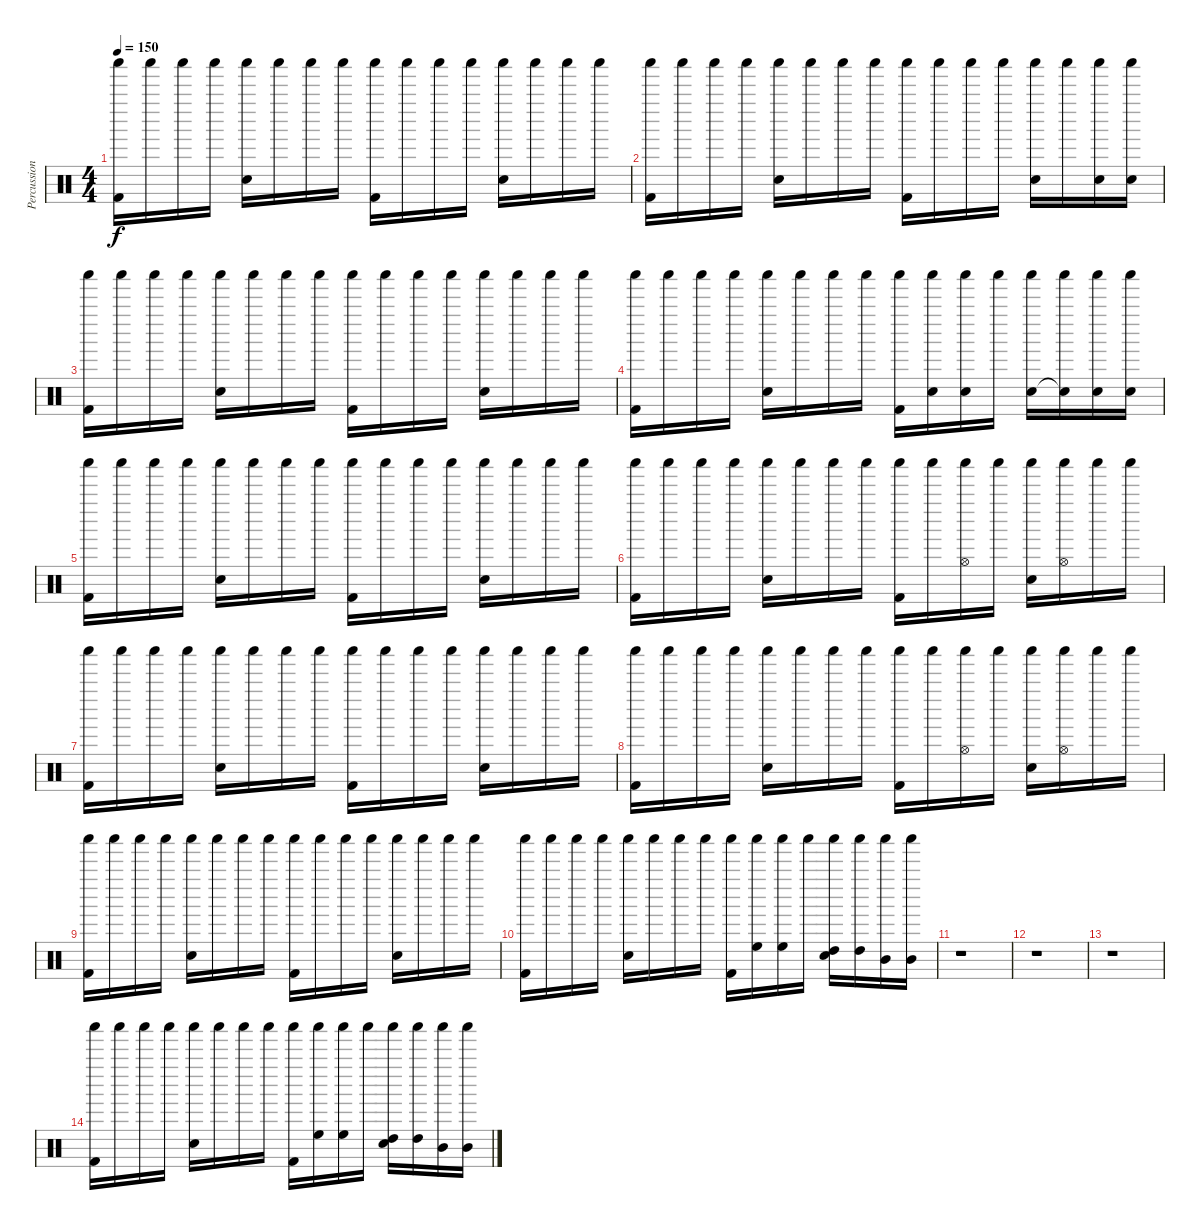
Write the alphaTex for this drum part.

\track ("Percussion" "Percussion") {instrument percussion}
\staff {score}
\articulation defaults
\ts (4 4)
\tempo 150
\clef neutral
\ks c
("Shaker (hit)" "Kick (hit) 2").16{dy f} "Shaker (hit)".16 "Shaker (hit)".16 "Shaker (hit)".16 ("Shaker (hit)" "Snare (hit) 2").16 "Shaker (hit)".16 "Shaker (hit)".16 "Shaker (hit)".16 ("Shaker (hit)" "Kick (hit) 2").16 "Shaker (hit)".16 "Shaker (hit)".16 "Shaker (hit)".16 ("Shaker (hit)" "Snare (hit) 2").16 "Shaker (hit)".16 "Shaker (hit)".16 "Shaker (hit)".16 |
("Shaker (hit)" "Kick (hit) 2").16 "Shaker (hit)".16 "Shaker (hit)".16 "Shaker (hit)".16 ("Shaker (hit)" "Snare (hit) 2").16 "Shaker (hit)".16 "Shaker (hit)".16 "Shaker (hit)".16 ("Shaker (hit)" "Kick (hit) 2").16 "Shaker (hit)".16 "Shaker (hit)".16 "Shaker (hit)".16 ("Shaker (hit)" "Snare (hit) 2").16 "Shaker (hit)".16 ("Shaker (hit)" "Snare (hit) 2").16 ("Shaker (hit)" "Snare (hit) 2").16 |
("Shaker (hit)" "Kick (hit) 2").16 "Shaker (hit)".16 "Shaker (hit)".16 "Shaker (hit)".16 ("Shaker (hit)" "Snare (hit) 2").16 "Shaker (hit)".16 "Shaker (hit)".16 "Shaker (hit)".16 ("Shaker (hit)" "Kick (hit) 2").16 "Shaker (hit)".16 "Shaker (hit)".16 "Shaker (hit)".16 ("Shaker (hit)" "Snare (hit) 2").16 "Shaker (hit)".16 "Shaker (hit)".16 "Shaker (hit)".16 |
("Shaker (hit)" "Kick (hit) 2").16 "Shaker (hit)".16 "Shaker (hit)".16 "Shaker (hit)".16 ("Shaker (hit)" "Snare (hit) 2").16 "Shaker (hit)".16 "Shaker (hit)".16 "Shaker (hit)".16 ("Shaker (hit)" "Kick (hit) 2").16 ("Shaker (hit)" "Snare (hit) 2").16 ("Shaker (hit)" "Snare (hit) 2").16 "Shaker (hit)".16 ("Shaker (hit)" "Snare (hit) 2").16 ("Shaker (hit)" "Snare (hit) 2"{t}).16 ("Shaker (hit)" "Snare (hit) 2").16 ("Shaker (hit)" "Snare (hit) 2").16 |
("Shaker (hit)" "Kick (hit) 2").16 "Shaker (hit)".16 "Shaker (hit)".16 "Shaker (hit)".16 ("Shaker (hit)" "Snare (hit) 2").16 "Shaker (hit)".16 "Shaker (hit)".16 "Shaker (hit)".16 ("Shaker (hit)" "Kick (hit) 2").16 "Shaker (hit)".16 "Shaker (hit)".16 "Shaker (hit)".16 ("Shaker (hit)" "Snare (hit) 2").16 "Shaker (hit)".16 "Shaker (hit)".16 "Shaker (hit)".16 |
("Shaker (hit)" "Kick (hit) 2").16 "Shaker (hit)".16 "Shaker (hit)".16 "Shaker (hit)".16 ("Shaker (hit)" "Snare (hit) 2").16 "Shaker (hit)".16 "Shaker (hit)".16 "Shaker (hit)".16 ("Shaker (hit)" "Kick (hit) 2").16 "Shaker (hit)".16 ("Shaker (hit)" "Hi-Hat (open)").16 "Shaker (hit)".16 ("Shaker (hit)" "Snare (hit) 2").16 ("Shaker (hit)" "Hi-Hat (open)").16 "Shaker (hit)".16 "Shaker (hit)".16 |
("Shaker (hit)" "Kick (hit) 2").16 "Shaker (hit)".16 "Shaker (hit)".16 "Shaker (hit)".16 ("Shaker (hit)" "Snare (hit) 2").16 "Shaker (hit)".16 "Shaker (hit)".16 "Shaker (hit)".16 ("Shaker (hit)" "Kick (hit) 2").16 "Shaker (hit)".16 "Shaker (hit)".16 "Shaker (hit)".16 ("Shaker (hit)" "Snare (hit) 2").16 "Shaker (hit)".16 "Shaker (hit)".16 "Shaker (hit)".16 |
("Shaker (hit)" "Kick (hit) 2").16 "Shaker (hit)".16 "Shaker (hit)".16 "Shaker (hit)".16 ("Shaker (hit)" "Snare (hit) 2").16 "Shaker (hit)".16 "Shaker (hit)".16 "Shaker (hit)".16 ("Shaker (hit)" "Kick (hit) 2").16 "Shaker (hit)".16 ("Shaker (hit)" "Hi-Hat (open)").16 "Shaker (hit)".16 ("Shaker (hit)" "Snare (hit) 2").16 ("Shaker (hit)" "Hi-Hat (open)").16 "Shaker (hit)".16 "Shaker (hit)".16 |
("Shaker (hit)" "Kick (hit) 2").16 "Shaker (hit)".16 "Shaker (hit)".16 "Shaker (hit)".16 ("Shaker (hit)" "Snare (hit) 2").16 "Shaker (hit)".16 "Shaker (hit)".16 "Shaker (hit)".16 ("Shaker (hit)" "Kick (hit) 2").16 "Shaker (hit)".16 "Shaker (hit)".16 "Shaker (hit)".16 ("Shaker (hit)" "Snare (hit) 2").16 "Shaker (hit)".16 "Shaker (hit)".16 "Shaker (hit)".16 |
("Shaker (hit)" "Kick (hit) 2").16 "Shaker (hit)".16 "Shaker (hit)".16 "Shaker (hit)".16 ("Shaker (hit)" "Snare (hit) 2").16 "Shaker (hit)".16 "Shaker (hit)".16 "Shaker (hit)".16 ("Shaker (hit)" "Kick (hit) 2").16 ("Shaker (hit)" "High Floor Tom (hit)").16 ("Shaker (hit)" "High Floor Tom (hit)").16 "Shaker (hit)".16 ("Shaker (hit)" "High Tom (hit)" "Snare (hit) 2").16 ("Shaker (hit)" "High Tom (hit)").16 ("Shaker (hit)" "Mid Tom (hit)").16 ("Shaker (hit)" "Mid Tom (hit)").16 |
r.1 |
r.1 |
r.1 |
("Shaker (hit)" "Kick (hit) 2").16 "Shaker (hit)".16 "Shaker (hit)".16 "Shaker (hit)".16 ("Shaker (hit)" "Snare (hit) 2").16 "Shaker (hit)".16 "Shaker (hit)".16 "Shaker (hit)".16 ("Shaker (hit)" "Kick (hit) 2").16 ("Shaker (hit)" "High Floor Tom (hit)").16 ("Shaker (hit)" "High Floor Tom (hit)").16 "Shaker (hit)".16 ("Shaker (hit)" "High Tom (hit)" "Snare (hit) 2").16 ("Shaker (hit)" "High Tom (hit)").16 ("Shaker (hit)" "Mid Tom (hit)").16 ("Shaker (hit)" "Mid Tom (hit)").16
